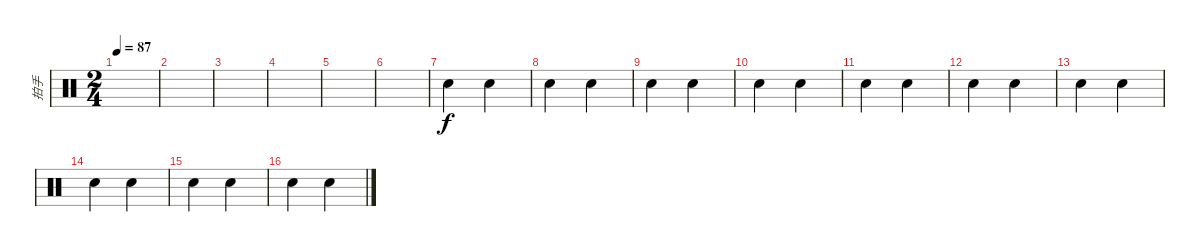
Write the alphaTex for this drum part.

\track ("拍手" "拍手") {instrument percussion}
\staff {score}
\articulation defaults
\ts (2 4)
\tempo 87
\clef neutral
\ks c
|
|
|
|
|
|
"Hand Clap (hit)".4 "Hand Clap (hit)".4 |
"Hand Clap (hit)".4 "Hand Clap (hit)".4 |
"Hand Clap (hit)".4 "Hand Clap (hit)".4 |
"Hand Clap (hit)".4 "Hand Clap (hit)".4 |
"Hand Clap (hit)".4 "Hand Clap (hit)".4 |
"Hand Clap (hit)".4 "Hand Clap (hit)".4 |
"Hand Clap (hit)".4 "Hand Clap (hit)".4 |
"Hand Clap (hit)".4 "Hand Clap (hit)".4 |
"Hand Clap (hit)".4 "Hand Clap (hit)".4 |
"Hand Clap (hit)".4 "Hand Clap (hit)".4
